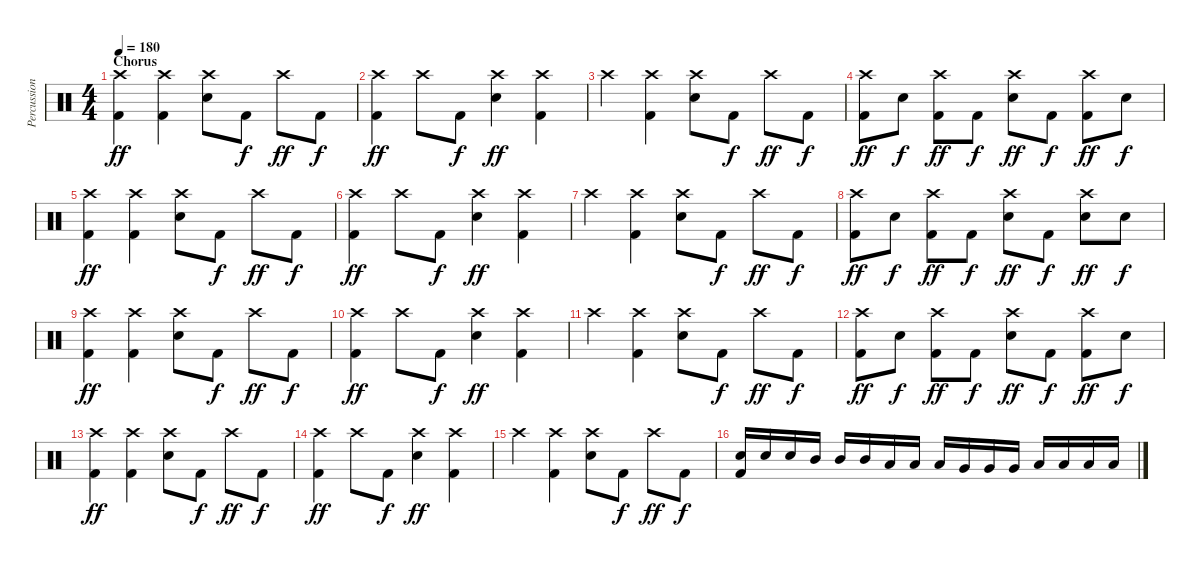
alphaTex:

\track ("Percussions" "Percussion") {instrument percussion}
\staff {score}
\articulation defaults
\ts (4 4)
\section ("" "Chorus")
\tempo 180
\clef neutral
\ks c
("Crash high (hit)" "Kick (hit) 2").4{dy ff} ("Crash high (hit)" "Kick (hit) 2").4 ("Crash high (hit)" "Electric Snare (hit)").8 "Kick (hit) 2".8{dy f} "Crash high (hit)".8{dy ff} "Kick (hit) 2".8{dy f} |
("Crash high (hit)" "Kick (hit) 2").4{dy ff} "Crash high (hit)".8 "Kick (hit) 2".8{dy f} ("Crash high (hit)" "Electric Snare (hit)").4{dy ff} ("Crash high (hit)" "Kick (hit) 2").4 |
"Crash high (hit)".4 ("Crash high (hit)" "Kick (hit) 2").4 ("Crash high (hit)" "Electric Snare (hit)").8 "Kick (hit) 2".8{dy f} "Crash high (hit)".8{dy ff} "Kick (hit) 2".8{dy f} |
("Crash high (hit)" "Kick (hit) 2").8{dy ff} "Electric Snare (hit)".8{dy f} ("Crash high (hit)" "Kick (hit) 2").8{dy ff} "Kick (hit) 2".8{dy f} ("Crash high (hit)" "Electric Snare (hit)").8{dy ff} "Kick (hit) 2".8{dy f} ("Crash high (hit)" "Kick (hit) 2").8{dy ff} "Electric Snare (hit)".8{dy f} |
("Crash high (hit)" "Kick (hit) 2").4{dy ff} ("Crash high (hit)" "Kick (hit) 2").4 ("Crash high (hit)" "Electric Snare (hit)").8 "Kick (hit) 2".8{dy f} "Crash high (hit)".8{dy ff} "Kick (hit) 2".8{dy f} |
("Crash high (hit)" "Kick (hit) 2").4{dy ff} "Crash high (hit)".8 "Kick (hit) 2".8{dy f} ("Crash high (hit)" "Electric Snare (hit)").4{dy ff} ("Crash high (hit)" "Kick (hit) 2").4 |
"Crash high (hit)".4 ("Crash high (hit)" "Kick (hit) 2").4 ("Crash high (hit)" "Electric Snare (hit)").8 "Kick (hit) 2".8{dy f} "Crash high (hit)".8{dy ff} "Kick (hit) 2".8{dy f} |
("Crash high (hit)" "Kick (hit) 2").8{dy ff} "Electric Snare (hit)".8{dy f} ("Crash high (hit)" "Kick (hit) 2").8{dy ff} "Kick (hit) 2".8{dy f} ("Crash high (hit)" "Electric Snare (hit)").8{dy ff} "Kick (hit) 2".8{dy f} ("Crash high (hit)" "Electric Snare (hit)").8{dy ff} "Electric Snare (hit)".8{dy f} |
("Crash high (hit)" "Kick (hit) 2").4{dy ff} ("Crash high (hit)" "Kick (hit) 2").4 ("Crash high (hit)" "Electric Snare (hit)").8 "Kick (hit) 2".8{dy f} "Crash high (hit)".8{dy ff} "Kick (hit) 2".8{dy f} |
("Crash high (hit)" "Kick (hit) 2").4{dy ff} "Crash high (hit)".8 "Kick (hit) 2".8{dy f} ("Crash high (hit)" "Electric Snare (hit)").4{dy ff} ("Crash high (hit)" "Kick (hit) 2").4 |
"Crash high (hit)".4 ("Crash high (hit)" "Kick (hit) 2").4 ("Crash high (hit)" "Electric Snare (hit)").8 "Kick (hit) 2".8{dy f} "Crash high (hit)".8{dy ff} "Kick (hit) 2".8{dy f} |
("Crash high (hit)" "Kick (hit) 2").8{dy ff} "Electric Snare (hit)".8{dy f} ("Crash high (hit)" "Kick (hit) 2").8{dy ff} "Kick (hit) 2".8{dy f} ("Crash high (hit)" "Electric Snare (hit)").8{dy ff} "Kick (hit) 2".8{dy f} ("Crash high (hit)" "Kick (hit) 2").8{dy ff} "Electric Snare (hit)".8{dy f} |
("Crash high (hit)" "Kick (hit) 2").4{dy ff} ("Crash high (hit)" "Kick (hit) 2").4 ("Crash high (hit)" "Electric Snare (hit)").8 "Kick (hit) 2".8{dy f} "Crash high (hit)".8{dy ff} "Kick (hit) 2".8{dy f} |
("Crash high (hit)" "Kick (hit) 2").4{dy ff} "Crash high (hit)".8 "Kick (hit) 2".8{dy f} ("Crash high (hit)" "Electric Snare (hit)").4{dy ff} ("Crash high (hit)" "Kick (hit) 2").4 |
"Crash high (hit)".4 ("Crash high (hit)" "Kick (hit) 2").4 ("Crash high (hit)" "Electric Snare (hit)").8 "Kick (hit) 2".8{dy f} "Crash high (hit)".8{dy ff} "Kick (hit) 2".8{dy f} |
("Electric Snare (hit)" "Kick (hit) 2").16 "Electric Snare (hit)".16 "Electric Snare (hit)".16 "Mid Tom (hit)".16 "Mid Tom (hit)".16 "Mid Tom (hit)".16 "Low Tom (hit)".16 "Low Tom (hit)".16 "Low Tom (hit)".16 "Very Low Tom (hit)".16 "Very Low Tom (hit)".16 "Very Low Tom (hit)".16 "Low Floor Tom (hit)".16 "Low Floor Tom (hit)".16 "Low Floor Tom (hit)".16 "Low Floor Tom (hit)".16
